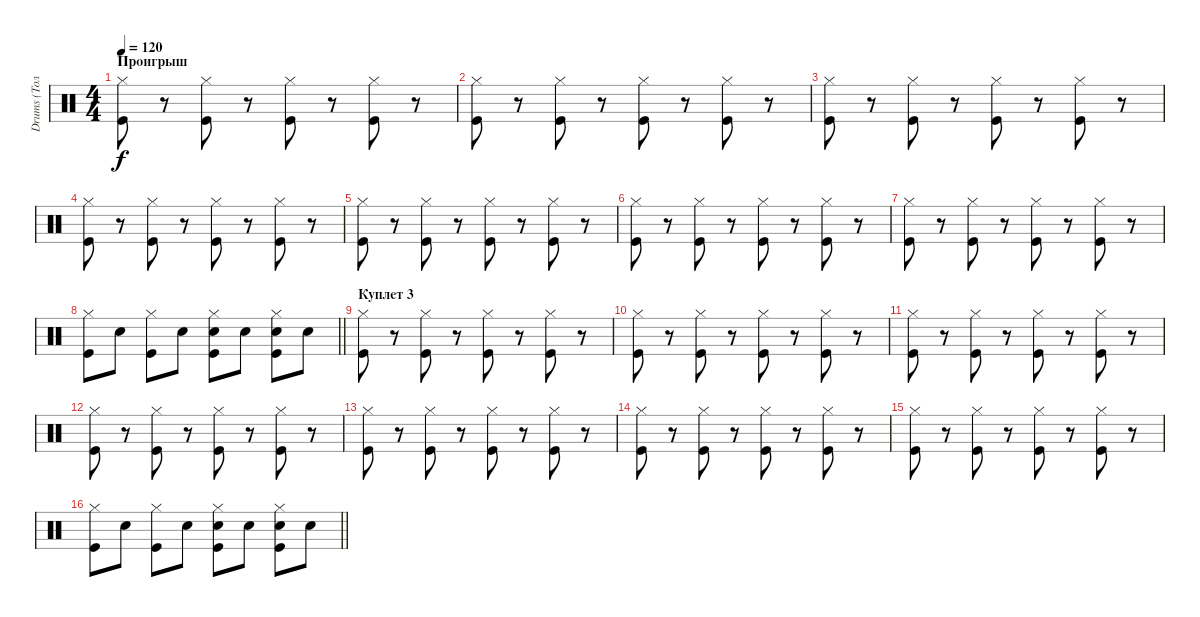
\track ("Drums (Толян)" "Drums (Тол") {instrument percussion}
\staff {score}
\articulation defaults
\ts (4 4)
\section ("" "Проигрыш")
\tempo 120
\clef neutral
\ks c
("Hi-Hat (closed)" "Kick (hit)").8{dy f} r.8 ("Hi-Hat (closed)" "Kick (hit)").8 r.8 ("Hi-Hat (closed)" "Kick (hit)").8 r.8 ("Hi-Hat (closed)" "Kick (hit)").8 r.8 |
("Hi-Hat (closed)" "Kick (hit)").8 r.8 ("Hi-Hat (closed)" "Kick (hit)").8 r.8 ("Hi-Hat (closed)" "Kick (hit)").8 r.8 ("Hi-Hat (closed)" "Kick (hit)").8 r.8 |
("Hi-Hat (closed)" "Kick (hit)").8 r.8 ("Hi-Hat (closed)" "Kick (hit)").8 r.8 ("Hi-Hat (closed)" "Kick (hit)").8 r.8 ("Hi-Hat (closed)" "Kick (hit)").8 r.8 |
("Hi-Hat (closed)" "Kick (hit)").8 r.8 ("Hi-Hat (closed)" "Kick (hit)").8 r.8 ("Hi-Hat (closed)" "Kick (hit)").8 r.8 ("Hi-Hat (closed)" "Kick (hit)").8 r.8 |
("Hi-Hat (closed)" "Kick (hit)").8 r.8 ("Hi-Hat (closed)" "Kick (hit)").8 r.8 ("Hi-Hat (closed)" "Kick (hit)").8 r.8 ("Hi-Hat (closed)" "Kick (hit)").8 r.8 |
("Hi-Hat (closed)" "Kick (hit)").8 r.8 ("Hi-Hat (closed)" "Kick (hit)").8 r.8 ("Hi-Hat (closed)" "Kick (hit)").8 r.8 ("Hi-Hat (closed)" "Kick (hit)").8 r.8 |
("Hi-Hat (closed)" "Kick (hit)").8 r.8 ("Hi-Hat (closed)" "Kick (hit)").8 r.8 ("Hi-Hat (closed)" "Kick (hit)").8 r.8 ("Hi-Hat (closed)" "Kick (hit)").8 r.8 |
\barLineRight lightlight
("Hi-Hat (closed)" "Kick (hit)").8 "Electric Snare (hit)".8 ("Hi-Hat (closed)" "Kick (hit)").8 "Electric Snare (hit)".8 ("Hi-Hat (closed)" "Electric Snare (hit)" "Kick (hit)").8 "Electric Snare (hit)".8 ("Hi-Hat (closed)" "Electric Snare (hit)" "Kick (hit)").8 "Electric Snare (hit)".8 |
\section ("" "Куплет 3")
("Hi-Hat (closed)" "Kick (hit)").8 r.8 ("Hi-Hat (closed)" "Kick (hit)").8 r.8 ("Hi-Hat (closed)" "Kick (hit)").8 r.8 ("Hi-Hat (closed)" "Kick (hit)").8 r.8 |
("Hi-Hat (closed)" "Kick (hit)").8 r.8 ("Hi-Hat (closed)" "Kick (hit)").8 r.8 ("Hi-Hat (closed)" "Kick (hit)").8 r.8 ("Hi-Hat (closed)" "Kick (hit)").8 r.8 |
("Hi-Hat (closed)" "Kick (hit)").8 r.8 ("Hi-Hat (closed)" "Kick (hit)").8 r.8 ("Hi-Hat (closed)" "Kick (hit)").8 r.8 ("Hi-Hat (closed)" "Kick (hit)").8 r.8 |
("Hi-Hat (closed)" "Kick (hit)").8 r.8 ("Hi-Hat (closed)" "Kick (hit)").8 r.8 ("Hi-Hat (closed)" "Kick (hit)").8 r.8 ("Hi-Hat (closed)" "Kick (hit)").8 r.8 |
("Hi-Hat (closed)" "Kick (hit)").8 r.8 ("Hi-Hat (closed)" "Kick (hit)").8 r.8 ("Hi-Hat (closed)" "Kick (hit)").8 r.8 ("Hi-Hat (closed)" "Kick (hit)").8 r.8 |
("Hi-Hat (closed)" "Kick (hit)").8 r.8 ("Hi-Hat (closed)" "Kick (hit)").8 r.8 ("Hi-Hat (closed)" "Kick (hit)").8 r.8 ("Hi-Hat (closed)" "Kick (hit)").8 r.8 |
("Hi-Hat (closed)" "Kick (hit)").8 r.8 ("Hi-Hat (closed)" "Kick (hit)").8 r.8 ("Hi-Hat (closed)" "Kick (hit)").8 r.8 ("Hi-Hat (closed)" "Kick (hit)").8 r.8 |
\barLineRight lightlight
("Hi-Hat (closed)" "Kick (hit)").8 "Electric Snare (hit)".8 ("Hi-Hat (closed)" "Kick (hit)").8 "Electric Snare (hit)".8 ("Hi-Hat (closed)" "Electric Snare (hit)" "Kick (hit)").8 "Electric Snare (hit)".8 ("Hi-Hat (closed)" "Electric Snare (hit)" "Kick (hit)").8 "Electric Snare (hit)".8
